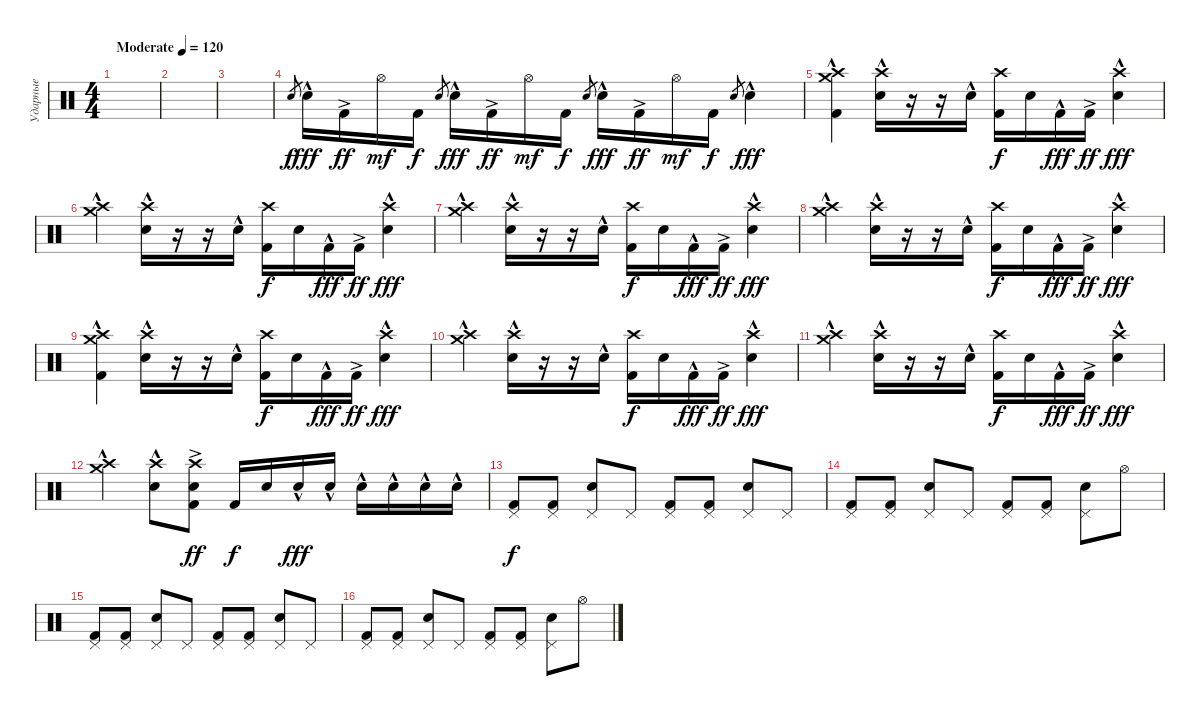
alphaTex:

\track ("Ударные" "Ударные") {instrument percussion}
\staff {score}
\articulation defaults
\ts (4 4)
\tempo (120 "Moderate")
\clef neutral
\ks c
|
|
|
"Electric Snare (hit)".8{gr} "Electric Snare (hit)"{hac}.16{dy fff} "Kick (hit) 2"{ac}.16{dy ff} "Hi-Hat (open)".16{dy mf} "Kick (hit) 2".16{dy f} "Electric Snare (hit)".8{gr} "Electric Snare (hit)"{hac}.16{dy fff} "Kick (hit) 2"{ac}.16{dy ff} "Hi-Hat (open)".16{dy mf} "Kick (hit) 2".16{dy f} "Electric Snare (hit)".8{gr} "Electric Snare (hit)"{hac}.16{dy fff} "Kick (hit) 2"{ac}.16{dy ff} "Hi-Hat (open)".16{dy mf} "Kick (hit) 2".16{dy f} "Electric Snare (hit)".8{gr} "Electric Snare (hit)"{hac}.4{dy fff} |
("Crash high (hit)" "Crash medium (hit)"{hac} "Kick (hit) 2").4 ("Crash high (hit)" "Electric Snare (hit)"{hac}).16 r.16 r.16 "Electric Snare (hit)"{hac}.16 ("Crash high (hit)" "Kick (hit) 2").16{dy f} "Electric Snare (hit)".16 "Kick (hit) 2"{hac}.16{dy fff} "Kick (hit) 2"{ac}.16{dy ff} ("Crash high (hit)" "Electric Snare (hit)"{hac}).4{dy fff} |
("Crash high (hit)" "Crash medium (hit)"{hac}).4 ("Crash high (hit)" "Electric Snare (hit)"{hac}).16 r.16 r.16 "Electric Snare (hit)"{hac}.16 ("Crash high (hit)" "Kick (hit) 2").16{dy f} "Electric Snare (hit)".16 "Kick (hit) 2"{hac}.16{dy fff} "Kick (hit) 2"{ac}.16{dy ff} ("Crash high (hit)" "Electric Snare (hit)"{hac}).4{dy fff} |
("Crash high (hit)" "Crash medium (hit)"{hac}).4 ("Crash high (hit)" "Electric Snare (hit)"{hac}).16 r.16 r.16 "Electric Snare (hit)"{hac}.16 ("Crash high (hit)" "Kick (hit) 2").16{dy f} "Electric Snare (hit)".16 "Kick (hit) 2"{hac}.16{dy fff} "Kick (hit) 2"{ac}.16{dy ff} ("Crash high (hit)" "Electric Snare (hit)"{hac}).4{dy fff} |
("Crash high (hit)" "Crash medium (hit)"{hac}).4 ("Crash high (hit)" "Electric Snare (hit)"{hac}).16 r.16 r.16 "Electric Snare (hit)"{hac}.16 ("Crash high (hit)" "Kick (hit) 2").16{dy f} "Electric Snare (hit)".16 "Kick (hit) 2"{hac}.16{dy fff} "Kick (hit) 2"{ac}.16{dy ff} ("Crash high (hit)" "Electric Snare (hit)"{hac}).4{dy fff} |
("Crash high (hit)" "Crash medium (hit)"{hac} "Kick (hit) 2").4 ("Crash high (hit)" "Electric Snare (hit)"{hac}).16 r.16 r.16 "Electric Snare (hit)"{hac}.16 ("Crash high (hit)" "Kick (hit) 2").16{dy f} "Electric Snare (hit)".16 "Kick (hit) 2"{hac}.16{dy fff} "Kick (hit) 2"{ac}.16{dy ff} ("Crash high (hit)" "Electric Snare (hit)"{hac}).4{dy fff} |
("Crash high (hit)" "Crash medium (hit)"{hac}).4 ("Crash high (hit)" "Electric Snare (hit)"{hac}).16 r.16 r.16 "Electric Snare (hit)"{hac}.16 ("Crash high (hit)" "Kick (hit) 2").16{dy f} "Electric Snare (hit)".16 "Kick (hit) 2"{hac}.16{dy fff} "Kick (hit) 2"{ac}.16{dy ff} ("Crash high (hit)" "Electric Snare (hit)"{hac}).4{dy fff} |
("Crash high (hit)" "Crash medium (hit)"{hac}).4 ("Crash high (hit)" "Electric Snare (hit)"{hac}).16 r.16 r.16 "Electric Snare (hit)"{hac}.16 ("Crash high (hit)" "Kick (hit) 2").16{dy f} "Electric Snare (hit)".16 "Kick (hit) 2"{hac}.16{dy fff} "Kick (hit) 2"{ac}.16{dy ff} ("Crash high (hit)" "Electric Snare (hit)"{hac}).4{dy fff} |
("Crash high (hit)" "Crash medium (hit)"{hac}).4 ("Crash high (hit)" "Electric Snare (hit)"{hac}).8 ("Crash high (hit)"{ac} "Electric Snare (hit)"{ac} "Kick (hit) 2").8{dy ff} "Kick (hit) 2".16{dy f} "Electric Snare (hit)".16 "Electric Snare (hit)"{hac}.16{dy fff} "Electric Snare (hit)"{hac}.16 "Electric Snare (hit)"{hac}.16 "Electric Snare (hit)"{hac}.16 "Electric Snare (hit)"{hac}.16 "Electric Snare (hit)"{hac}.16 |
("Pedal Hi-Hat (hit)" "Kick (hit) 2").8{dy f} ("Pedal Hi-Hat (hit)" "Kick (hit) 2").8 ("Pedal Hi-Hat (hit)" "Electric Snare (hit)").8 "Pedal Hi-Hat (hit)".8 ("Pedal Hi-Hat (hit)" "Kick (hit) 2").8 ("Pedal Hi-Hat (hit)" "Kick (hit) 2").8 ("Pedal Hi-Hat (hit)" "Electric Snare (hit)").8 "Pedal Hi-Hat (hit)".8 |
("Pedal Hi-Hat (hit)" "Kick (hit) 2").8 ("Pedal Hi-Hat (hit)" "Kick (hit) 2").8 ("Pedal Hi-Hat (hit)" "Electric Snare (hit)").8 "Pedal Hi-Hat (hit)".8 ("Pedal Hi-Hat (hit)" "Kick (hit) 2").8 ("Pedal Hi-Hat (hit)" "Kick (hit) 2").8 ("Pedal Hi-Hat (hit)" "Electric Snare (hit)").8 "Hi-Hat (open)".8 |
("Pedal Hi-Hat (hit)" "Kick (hit) 2").8 ("Pedal Hi-Hat (hit)" "Kick (hit) 2").8 ("Pedal Hi-Hat (hit)" "Electric Snare (hit)").8 "Pedal Hi-Hat (hit)".8 ("Pedal Hi-Hat (hit)" "Kick (hit) 2").8 ("Pedal Hi-Hat (hit)" "Kick (hit) 2").8 ("Pedal Hi-Hat (hit)" "Electric Snare (hit)").8 "Pedal Hi-Hat (hit)".8 |
("Pedal Hi-Hat (hit)" "Kick (hit) 2").8 ("Pedal Hi-Hat (hit)" "Kick (hit) 2").8 ("Pedal Hi-Hat (hit)" "Electric Snare (hit)").8 "Pedal Hi-Hat (hit)".8 ("Pedal Hi-Hat (hit)" "Kick (hit) 2").8 ("Pedal Hi-Hat (hit)" "Kick (hit) 2").8 ("Pedal Hi-Hat (hit)" "Electric Snare (hit)").8 "Hi-Hat (open)".8
